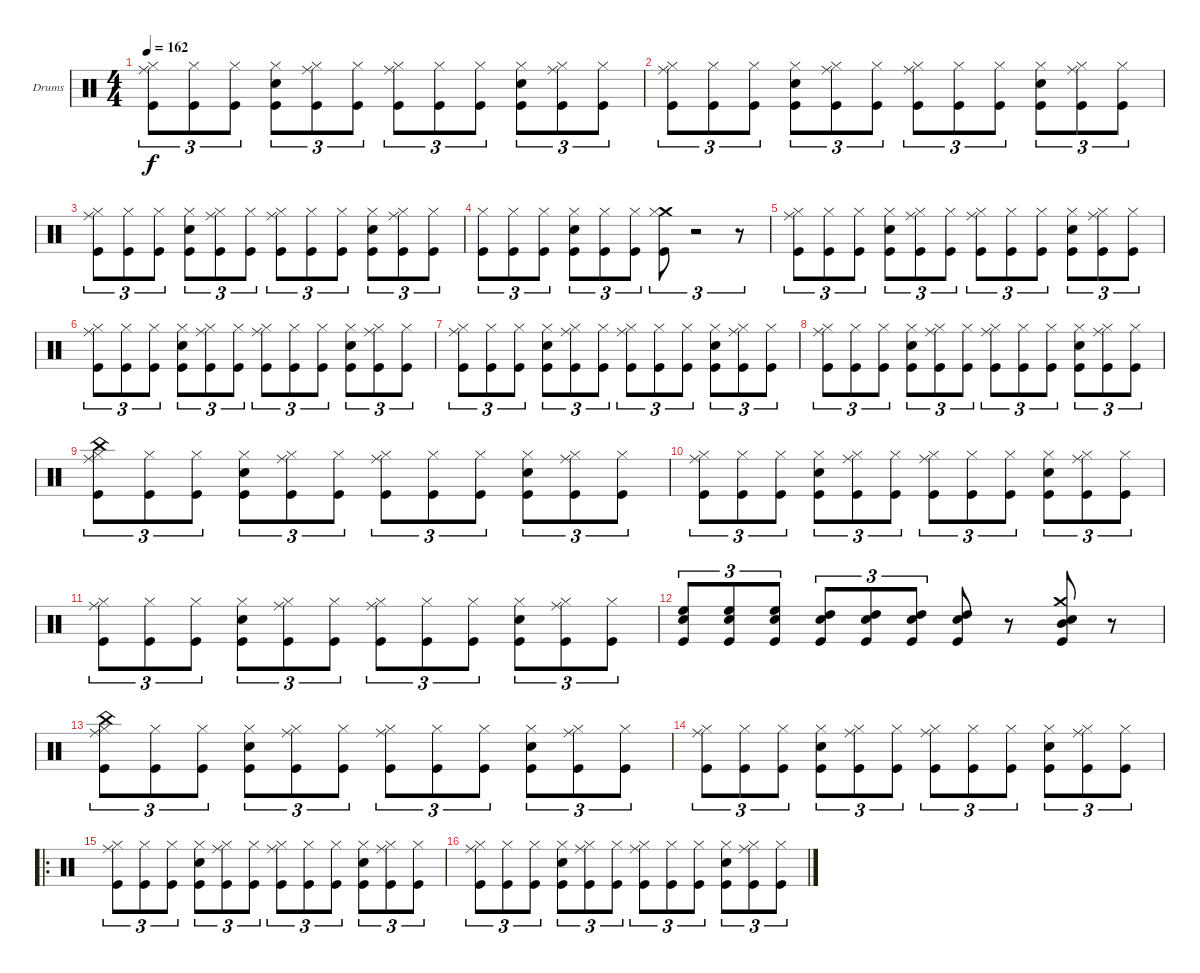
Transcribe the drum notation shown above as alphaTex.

\bracketExtendMode groupsimilarinstruments
\firstSystemTrackNameOrientation horizontal
\otherSystemsTrackNameOrientation horizontal
\track ("Drumkit" "Drums") {instrument percussion}
\staff {score}
\articulation defaults
\ts (4 4)
\tempo 162
\clef neutral
\ks c
("Kick (hit)" "Ride (middle)" "Hi-Hat (closed)").8{tu (3 2) dy f} ("Kick (hit)" "Hi-Hat (closed)").8{tu (3 2)} ("Kick (hit)" "Hi-Hat (closed)").8{tu (3 2)} ("Kick (hit)" "Snare (hit) 2" "Hi-Hat (closed)").8{tu (3 2)} ("Kick (hit)" "Ride (middle)" "Hi-Hat (closed)").8{tu (3 2)} ("Kick (hit)" "Hi-Hat (closed)").8{tu (3 2)} ("Kick (hit)" "Ride (middle)" "Hi-Hat (closed)").8{tu (3 2)} ("Kick (hit)" "Hi-Hat (closed)").8{tu (3 2)} ("Kick (hit)" "Hi-Hat (closed)").8{tu (3 2)} ("Kick (hit)" "Snare (hit) 2" "Hi-Hat (closed)").8{tu (3 2)} ("Kick (hit)" "Ride (middle)" "Hi-Hat (closed)").8{tu (3 2)} ("Kick (hit)" "Hi-Hat (closed)").8{tu (3 2)} |
("Kick (hit)" "Ride (middle)" "Hi-Hat (closed)").8{tu (3 2)} ("Kick (hit)" "Hi-Hat (closed)").8{tu (3 2)} ("Kick (hit)" "Hi-Hat (closed)").8{tu (3 2)} ("Kick (hit)" "Snare (hit) 2" "Hi-Hat (closed)").8{tu (3 2)} ("Kick (hit)" "Ride (middle)" "Hi-Hat (closed)").8{tu (3 2)} ("Kick (hit)" "Hi-Hat (closed)").8{tu (3 2)} ("Kick (hit)" "Ride (middle)" "Hi-Hat (closed)").8{tu (3 2)} ("Kick (hit)" "Hi-Hat (closed)").8{tu (3 2)} ("Kick (hit)" "Hi-Hat (closed)").8{tu (3 2)} ("Kick (hit)" "Snare (hit) 2" "Hi-Hat (closed)").8{tu (3 2)} ("Kick (hit)" "Ride (middle)" "Hi-Hat (closed)").8{tu (3 2)} ("Kick (hit)" "Hi-Hat (closed)").8{tu (3 2)} |
("Kick (hit)" "Ride (middle)" "Hi-Hat (closed)").8{tu (3 2)} ("Kick (hit)" "Hi-Hat (closed)").8{tu (3 2)} ("Kick (hit)" "Hi-Hat (closed)").8{tu (3 2)} ("Kick (hit)" "Snare (hit) 2" "Hi-Hat (closed)").8{tu (3 2)} ("Kick (hit)" "Ride (middle)" "Hi-Hat (closed)").8{tu (3 2)} ("Kick (hit)" "Hi-Hat (closed)").8{tu (3 2)} ("Kick (hit)" "Ride (middle)" "Hi-Hat (closed)").8{tu (3 2)} ("Kick (hit)" "Hi-Hat (closed)").8{tu (3 2)} ("Kick (hit)" "Hi-Hat (closed)").8{tu (3 2)} ("Kick (hit)" "Snare (hit) 2" "Hi-Hat (closed)").8{tu (3 2)} ("Kick (hit)" "Ride (middle)" "Hi-Hat (closed)").8{tu (3 2)} ("Kick (hit)" "Hi-Hat (closed)").8{tu (3 2)} |
("Kick (hit)" "Hi-Hat (closed)").8{tu (3 2)} ("Kick (hit)" "Hi-Hat (closed)").8{tu (3 2)} ("Kick (hit)" "Hi-Hat (closed)").8{tu (3 2)} ("Kick (hit)" "Snare (hit) 2" "Hi-Hat (closed)").8{tu (3 2)} ("Kick (hit)" "Hi-Hat (closed)").8{tu (3 2)} ("Kick (hit)" "Hi-Hat (closed)").8{tu (3 2)} ("Kick (hit)" "Crash medium (hit)" "Hi-Hat (closed)").8{tu (3 2)} r.2{tu (3 2)} r.8{tu (3 2)} |
("Kick (hit)" "Ride (middle)" "Hi-Hat (closed)").8{tu (3 2)} ("Kick (hit)" "Hi-Hat (closed)").8{tu (3 2)} ("Kick (hit)" "Hi-Hat (closed)").8{tu (3 2)} ("Kick (hit)" "Snare (hit) 2" "Hi-Hat (closed)").8{tu (3 2)} ("Kick (hit)" "Ride (middle)" "Hi-Hat (closed)").8{tu (3 2)} ("Kick (hit)" "Hi-Hat (closed)").8{tu (3 2)} ("Kick (hit)" "Ride (middle)" "Hi-Hat (closed)").8{tu (3 2)} ("Kick (hit)" "Hi-Hat (closed)").8{tu (3 2)} ("Kick (hit)" "Hi-Hat (closed)").8{tu (3 2)} ("Kick (hit)" "Snare (hit) 2" "Hi-Hat (closed)").8{tu (3 2)} ("Kick (hit)" "Ride (middle)" "Hi-Hat (closed)").8{tu (3 2)} ("Kick (hit)" "Hi-Hat (closed)").8{tu (3 2)} |
("Kick (hit)" "Ride (middle)" "Hi-Hat (closed)").8{tu (3 2)} ("Kick (hit)" "Hi-Hat (closed)").8{tu (3 2)} ("Kick (hit)" "Hi-Hat (closed)").8{tu (3 2)} ("Kick (hit)" "Snare (hit) 2" "Hi-Hat (closed)").8{tu (3 2)} ("Kick (hit)" "Ride (middle)" "Hi-Hat (closed)").8{tu (3 2)} ("Kick (hit)" "Hi-Hat (closed)").8{tu (3 2)} ("Kick (hit)" "Ride (middle)" "Hi-Hat (closed)").8{tu (3 2)} ("Kick (hit)" "Hi-Hat (closed)").8{tu (3 2)} ("Kick (hit)" "Hi-Hat (closed)").8{tu (3 2)} ("Kick (hit)" "Snare (hit) 2" "Hi-Hat (closed)").8{tu (3 2)} ("Kick (hit)" "Ride (middle)" "Hi-Hat (closed)").8{tu (3 2)} ("Kick (hit)" "Hi-Hat (closed)").8{tu (3 2)} |
("Kick (hit)" "Ride (middle)" "Hi-Hat (closed)").8{tu (3 2)} ("Kick (hit)" "Hi-Hat (closed)").8{tu (3 2)} ("Kick (hit)" "Hi-Hat (closed)").8{tu (3 2)} ("Kick (hit)" "Snare (hit) 2" "Hi-Hat (closed)").8{tu (3 2)} ("Kick (hit)" "Ride (middle)" "Hi-Hat (closed)").8{tu (3 2)} ("Kick (hit)" "Hi-Hat (closed)").8{tu (3 2)} ("Kick (hit)" "Ride (middle)" "Hi-Hat (closed)").8{tu (3 2)} ("Kick (hit)" "Hi-Hat (closed)").8{tu (3 2)} ("Kick (hit)" "Hi-Hat (closed)").8{tu (3 2)} ("Kick (hit)" "Snare (hit) 2" "Hi-Hat (closed)").8{tu (3 2)} ("Kick (hit)" "Ride (middle)" "Hi-Hat (closed)").8{tu (3 2)} ("Kick (hit)" "Hi-Hat (closed)").8{tu (3 2)} |
("Kick (hit)" "Ride (middle)" "Hi-Hat (closed)").8{tu (3 2)} ("Kick (hit)" "Hi-Hat (closed)").8{tu (3 2)} ("Kick (hit)" "Hi-Hat (closed)").8{tu (3 2)} ("Kick (hit)" "Snare (hit) 2" "Hi-Hat (closed)").8{tu (3 2)} ("Kick (hit)" "Ride (middle)" "Hi-Hat (closed)").8{tu (3 2)} ("Kick (hit)" "Hi-Hat (closed)").8{tu (3 2)} ("Kick (hit)" "Ride (middle)" "Hi-Hat (closed)").8{tu (3 2)} ("Kick (hit)" "Hi-Hat (closed)").8{tu (3 2)} ("Kick (hit)" "Hi-Hat (closed)").8{tu (3 2)} ("Kick (hit)" "Snare (hit) 2" "Hi-Hat (closed)").8{tu (3 2)} ("Kick (hit)" "Ride (middle)" "Hi-Hat (closed)").8{tu (3 2)} ("Kick (hit)" "Hi-Hat (closed)").8{tu (3 2)} |
("Kick (hit)" "Ride (middle)" "China (hit)" "Hi-Hat (closed)").8{tu (3 2)} ("Kick (hit)" "Hi-Hat (closed)").8{tu (3 2)} ("Kick (hit)" "Hi-Hat (closed)").8{tu (3 2)} ("Kick (hit)" "Snare (hit) 2" "Hi-Hat (closed)").8{tu (3 2)} ("Kick (hit)" "Ride (middle)" "Hi-Hat (closed)").8{tu (3 2)} ("Kick (hit)" "Hi-Hat (closed)").8{tu (3 2)} ("Kick (hit)" "Ride (middle)" "Hi-Hat (closed)").8{tu (3 2)} ("Kick (hit)" "Hi-Hat (closed)").8{tu (3 2)} ("Kick (hit)" "Hi-Hat (closed)").8{tu (3 2)} ("Kick (hit)" "Snare (hit) 2" "Hi-Hat (closed)").8{tu (3 2)} ("Kick (hit)" "Ride (middle)" "Hi-Hat (closed)").8{tu (3 2)} ("Kick (hit)" "Hi-Hat (closed)").8{tu (3 2)} |
("Kick (hit)" "Ride (middle)" "Hi-Hat (closed)").8{tu (3 2)} ("Kick (hit)" "Hi-Hat (closed)").8{tu (3 2)} ("Kick (hit)" "Hi-Hat (closed)").8{tu (3 2)} ("Kick (hit)" "Snare (hit) 2" "Hi-Hat (closed)").8{tu (3 2)} ("Kick (hit)" "Ride (middle)" "Hi-Hat (closed)").8{tu (3 2)} ("Kick (hit)" "Hi-Hat (closed)").8{tu (3 2)} ("Kick (hit)" "Ride (middle)" "Hi-Hat (closed)").8{tu (3 2)} ("Kick (hit)" "Hi-Hat (closed)").8{tu (3 2)} ("Kick (hit)" "Hi-Hat (closed)").8{tu (3 2)} ("Kick (hit)" "Snare (hit) 2" "Hi-Hat (closed)").8{tu (3 2)} ("Kick (hit)" "Ride (middle)" "Hi-Hat (closed)").8{tu (3 2)} ("Kick (hit)" "Hi-Hat (closed)").8{tu (3 2)} |
("Kick (hit)" "Ride (middle)" "Hi-Hat (closed)").8{tu (3 2)} ("Kick (hit)" "Hi-Hat (closed)").8{tu (3 2)} ("Kick (hit)" "Hi-Hat (closed)").8{tu (3 2)} ("Kick (hit)" "Snare (hit) 2" "Hi-Hat (closed)").8{tu (3 2)} ("Kick (hit)" "Ride (middle)" "Hi-Hat (closed)").8{tu (3 2)} ("Kick (hit)" "Hi-Hat (closed)").8{tu (3 2)} ("Kick (hit)" "Ride (middle)" "Hi-Hat (closed)").8{tu (3 2)} ("Kick (hit)" "Hi-Hat (closed)").8{tu (3 2)} ("Kick (hit)" "Hi-Hat (closed)").8{tu (3 2)} ("Kick (hit)" "Snare (hit) 2" "Hi-Hat (closed)").8{tu (3 2)} ("Kick (hit)" "Ride (middle)" "Hi-Hat (closed)").8{tu (3 2)} ("Kick (hit)" "Hi-Hat (closed)").8{tu (3 2)} |
("Kick (hit)" "Snare (hit) 2" "High Floor Tom (hit)").8{tu (3 2)} ("Kick (hit)" "Snare (hit) 2" "High Floor Tom (hit)").8{tu (3 2)} ("Kick (hit)" "Snare (hit) 2" "High Floor Tom (hit)").8{tu (3 2)} ("Kick (hit)" "Snare (hit) 2" "High Tom (hit)").8{tu (3 2)} ("Kick (hit)" "Snare (hit) 2" "High Tom (hit)").8{tu (3 2)} ("Kick (hit)" "Snare (hit) 2" "High Tom (hit)").8{tu (3 2)} ("Kick (hit)" "Snare (hit) 2" "High Tom (hit)").8 r.8 ("Kick (hit)" "Snare (hit) 2" "Mid Tom (hit)" "Crash medium (hit)").8 r.8 |
("Kick (hit)" "Ride (middle)" "China (hit)" "Hi-Hat (closed)").8{tu (3 2)} ("Kick (hit)" "Hi-Hat (closed)").8{tu (3 2)} ("Kick (hit)" "Hi-Hat (closed)").8{tu (3 2)} ("Kick (hit)" "Snare (hit) 2" "Hi-Hat (closed)").8{tu (3 2)} ("Kick (hit)" "Ride (middle)" "Hi-Hat (closed)").8{tu (3 2)} ("Kick (hit)" "Hi-Hat (closed)").8{tu (3 2)} ("Kick (hit)" "Ride (middle)" "Hi-Hat (closed)").8{tu (3 2)} ("Kick (hit)" "Hi-Hat (closed)").8{tu (3 2)} ("Kick (hit)" "Hi-Hat (closed)").8{tu (3 2)} ("Kick (hit)" "Snare (hit) 2" "Hi-Hat (closed)").8{tu (3 2)} ("Kick (hit)" "Ride (middle)" "Hi-Hat (closed)").8{tu (3 2)} ("Kick (hit)" "Hi-Hat (closed)").8{tu (3 2)} |
("Kick (hit)" "Ride (middle)" "Hi-Hat (closed)").8{tu (3 2)} ("Kick (hit)" "Hi-Hat (closed)").8{tu (3 2)} ("Kick (hit)" "Hi-Hat (closed)").8{tu (3 2)} ("Kick (hit)" "Snare (hit) 2" "Hi-Hat (closed)").8{tu (3 2)} ("Kick (hit)" "Ride (middle)" "Hi-Hat (closed)").8{tu (3 2)} ("Kick (hit)" "Hi-Hat (closed)").8{tu (3 2)} ("Kick (hit)" "Ride (middle)" "Hi-Hat (closed)").8{tu (3 2)} ("Kick (hit)" "Hi-Hat (closed)").8{tu (3 2)} ("Kick (hit)" "Hi-Hat (closed)").8{tu (3 2)} ("Kick (hit)" "Snare (hit) 2" "Hi-Hat (closed)").8{tu (3 2)} ("Kick (hit)" "Ride (middle)" "Hi-Hat (closed)").8{tu (3 2)} ("Kick (hit)" "Hi-Hat (closed)").8{tu (3 2)} |
\ro
("Kick (hit)" "Ride (middle)" "Hi-Hat (closed)").8{tu (3 2)} ("Kick (hit)" "Hi-Hat (closed)").8{tu (3 2)} ("Kick (hit)" "Hi-Hat (closed)").8{tu (3 2)} ("Kick (hit)" "Snare (hit) 2" "Hi-Hat (closed)").8{tu (3 2)} ("Kick (hit)" "Ride (middle)" "Hi-Hat (closed)").8{tu (3 2)} ("Kick (hit)" "Hi-Hat (closed)").8{tu (3 2)} ("Kick (hit)" "Ride (middle)" "Hi-Hat (closed)").8{tu (3 2)} ("Kick (hit)" "Hi-Hat (closed)").8{tu (3 2)} ("Kick (hit)" "Hi-Hat (closed)").8{tu (3 2)} ("Kick (hit)" "Snare (hit) 2" "Hi-Hat (closed)").8{tu (3 2)} ("Kick (hit)" "Ride (middle)" "Hi-Hat (closed)").8{tu (3 2)} ("Kick (hit)" "Hi-Hat (closed)").8{tu (3 2)} |
("Kick (hit)" "Ride (middle)" "Hi-Hat (closed)").8{tu (3 2)} ("Kick (hit)" "Hi-Hat (closed)").8{tu (3 2)} ("Kick (hit)" "Hi-Hat (closed)").8{tu (3 2)} ("Kick (hit)" "Snare (hit) 2" "Hi-Hat (closed)").8{tu (3 2)} ("Kick (hit)" "Ride (middle)" "Hi-Hat (closed)").8{tu (3 2)} ("Kick (hit)" "Hi-Hat (closed)").8{tu (3 2)} ("Kick (hit)" "Ride (middle)" "Hi-Hat (closed)").8{tu (3 2)} ("Kick (hit)" "Hi-Hat (closed)").8{tu (3 2)} ("Kick (hit)" "Hi-Hat (closed)").8{tu (3 2)} ("Kick (hit)" "Snare (hit) 2" "Hi-Hat (closed)").8{tu (3 2)} ("Kick (hit)" "Ride (middle)" "Hi-Hat (closed)").8{tu (3 2)} ("Kick (hit)" "Hi-Hat (closed)").8{tu (3 2)}
